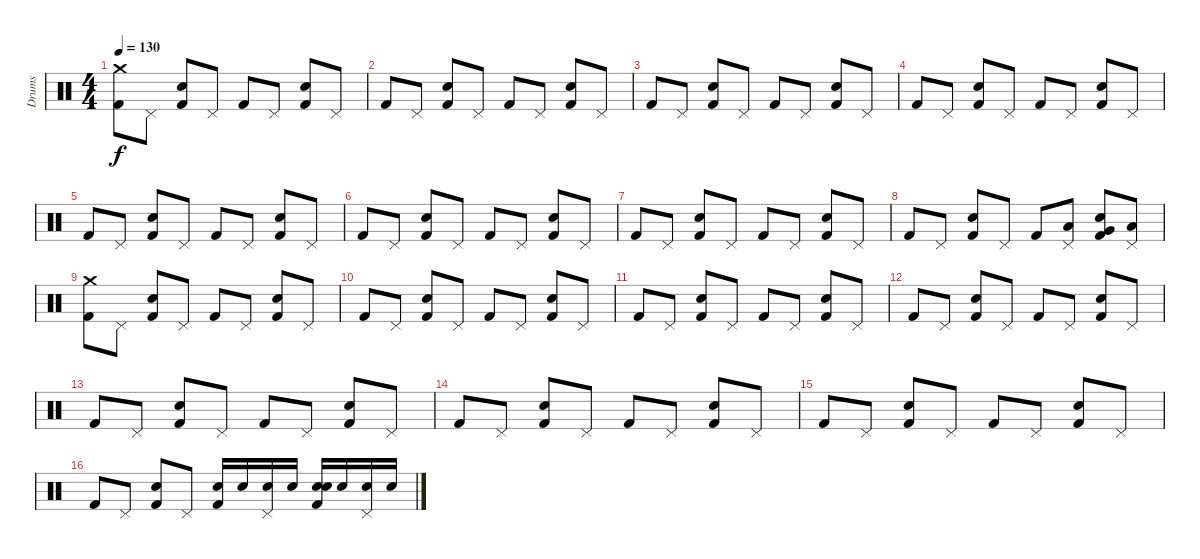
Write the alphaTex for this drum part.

\track ("Drums" "Drums") {instrument percussion}
\staff {score}
\articulation defaults
\ts (4 4)
\tempo 130
\clef neutral
\ks c
("Crash medium (hit)" "Kick (hit) 2").8{dy f} "Pedal Hi-Hat (hit)".8 ("Snare (hit) 2" "Kick (hit) 2").8 "Pedal Hi-Hat (hit)".8 "Kick (hit) 2".8 "Pedal Hi-Hat (hit)".8 ("Snare (hit) 2" "Kick (hit) 2").8 "Pedal Hi-Hat (hit)".8 |
"Kick (hit) 2".8 "Pedal Hi-Hat (hit)".8 ("Snare (hit) 2" "Kick (hit) 2").8 "Pedal Hi-Hat (hit)".8 "Kick (hit) 2".8 "Pedal Hi-Hat (hit)".8 ("Snare (hit) 2" "Kick (hit) 2").8 "Pedal Hi-Hat (hit)".8 |
"Kick (hit) 2".8 "Pedal Hi-Hat (hit)".8 ("Snare (hit) 2" "Kick (hit) 2").8 "Pedal Hi-Hat (hit)".8 "Kick (hit) 2".8 "Pedal Hi-Hat (hit)".8 ("Snare (hit) 2" "Kick (hit) 2").8 "Pedal Hi-Hat (hit)".8 |
"Kick (hit) 2".8 "Pedal Hi-Hat (hit)".8 ("Snare (hit) 2" "Kick (hit) 2").8 "Pedal Hi-Hat (hit)".8 "Kick (hit) 2".8 "Pedal Hi-Hat (hit)".8 ("Snare (hit) 2" "Kick (hit) 2").8 "Pedal Hi-Hat (hit)".8 |
"Kick (hit) 2".8 "Pedal Hi-Hat (hit)".8 ("Snare (hit) 2" "Kick (hit) 2").8 "Pedal Hi-Hat (hit)".8 "Kick (hit) 2".8 "Pedal Hi-Hat (hit)".8 ("Snare (hit) 2" "Kick (hit) 2").8 "Pedal Hi-Hat (hit)".8 |
"Kick (hit) 2".8 "Pedal Hi-Hat (hit)".8 ("Snare (hit) 2" "Kick (hit) 2").8 "Pedal Hi-Hat (hit)".8 "Kick (hit) 2".8 "Pedal Hi-Hat (hit)".8 ("Snare (hit) 2" "Kick (hit) 2").8 "Pedal Hi-Hat (hit)".8 |
"Kick (hit) 2".8 "Pedal Hi-Hat (hit)".8 ("Snare (hit) 2" "Kick (hit) 2").8 "Pedal Hi-Hat (hit)".8 "Kick (hit) 2".8 "Pedal Hi-Hat (hit)".8 ("Snare (hit) 2" "Kick (hit) 2").8 "Pedal Hi-Hat (hit)".8 |
"Kick (hit) 2".8 "Pedal Hi-Hat (hit)".8 ("Snare (hit) 2" "Kick (hit) 2").8 "Pedal Hi-Hat (hit)".8 "Kick (hit) 2".8 ("Low Tom (hit)" "Pedal Hi-Hat (hit)").8 ("Very Low Tom (hit)" "Snare (hit) 2" "Kick (hit) 2").8 ("Pedal Hi-Hat (hit)" "Low Floor Tom (hit)").8 |
("Crash medium (hit)" "Kick (hit) 2").8 "Pedal Hi-Hat (hit)".8 ("Snare (hit) 2" "Kick (hit) 2").8 "Pedal Hi-Hat (hit)".8 "Kick (hit) 2".8 "Pedal Hi-Hat (hit)".8 ("Snare (hit) 2" "Kick (hit) 2").8 "Pedal Hi-Hat (hit)".8 |
"Kick (hit) 2".8 "Pedal Hi-Hat (hit)".8 ("Snare (hit) 2" "Kick (hit) 2").8 "Pedal Hi-Hat (hit)".8 "Kick (hit) 2".8 "Pedal Hi-Hat (hit)".8 ("Snare (hit) 2" "Kick (hit) 2").8 "Pedal Hi-Hat (hit)".8 |
"Kick (hit) 2".8 "Pedal Hi-Hat (hit)".8 ("Snare (hit) 2" "Kick (hit) 2").8 "Pedal Hi-Hat (hit)".8 "Kick (hit) 2".8 "Pedal Hi-Hat (hit)".8 ("Snare (hit) 2" "Kick (hit) 2").8 "Pedal Hi-Hat (hit)".8 |
"Kick (hit) 2".8 "Pedal Hi-Hat (hit)".8 ("Snare (hit) 2" "Kick (hit) 2").8 "Pedal Hi-Hat (hit)".8 "Kick (hit) 2".8 "Pedal Hi-Hat (hit)".8 ("Snare (hit) 2" "Kick (hit) 2").8 "Pedal Hi-Hat (hit)".8 |
"Kick (hit) 2".8 "Pedal Hi-Hat (hit)".8 ("Snare (hit) 2" "Kick (hit) 2").8 "Pedal Hi-Hat (hit)".8 "Kick (hit) 2".8 "Pedal Hi-Hat (hit)".8 ("Snare (hit) 2" "Kick (hit) 2").8 "Pedal Hi-Hat (hit)".8 |
"Kick (hit) 2".8 "Pedal Hi-Hat (hit)".8 ("Snare (hit) 2" "Kick (hit) 2").8 "Pedal Hi-Hat (hit)".8 "Kick (hit) 2".8 "Pedal Hi-Hat (hit)".8 ("Snare (hit) 2" "Kick (hit) 2").8 "Pedal Hi-Hat (hit)".8 |
"Kick (hit) 2".8 "Pedal Hi-Hat (hit)".8 ("Snare (hit) 2" "Kick (hit) 2").8 "Pedal Hi-Hat (hit)".8 "Kick (hit) 2".8 "Pedal Hi-Hat (hit)".8 ("Snare (hit) 2" "Kick (hit) 2").8 "Pedal Hi-Hat (hit)".8 |
"Kick (hit) 2".8 "Pedal Hi-Hat (hit)".8 ("Snare (hit) 2" "Kick (hit) 2").8 "Pedal Hi-Hat (hit)".8 ("Electric Snare (hit)" "Kick (hit) 2").16 "Electric Snare (hit)".16 ("Pedal Hi-Hat (hit)" "Electric Snare (hit)").16 "Electric Snare (hit)".16 ("Electric Snare (hit)" "Snare (hit) 2" "Kick (hit) 2").16 "Electric Snare (hit)".16 ("Pedal Hi-Hat (hit)" "Electric Snare (hit)").16 "Electric Snare (hit)".16
